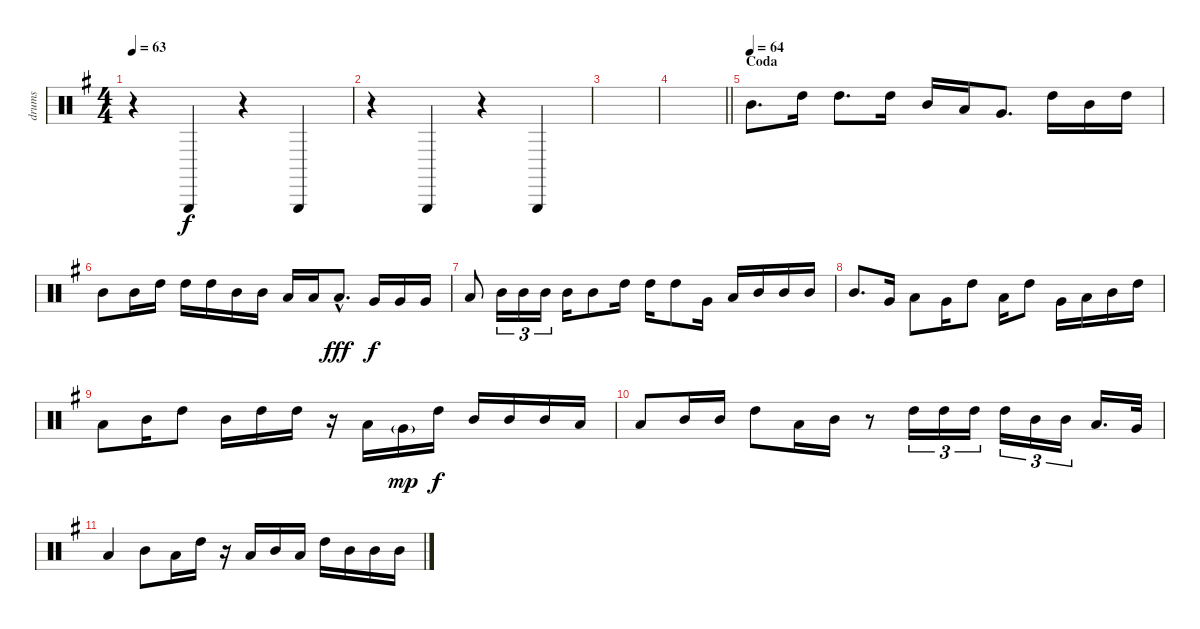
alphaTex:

\track ("drums" "drums") {instrument percussion}
\staff {score}
\articulation defaults
\ts (4 4)
\tempo 63
\clef neutral
\ks g
r.4{dy ff} "Triangle (hit)".4{dy f} r.4 "Triangle (hit)".4 |
r.4 "Triangle (hit)".4 r.4 "Triangle (hit)".4 |
|
\barLineRight lightlight
|
\section ("" "Coda")
\tempo (64)
"Mid Tom (hit)".8{d} "High Tom (hit)".16 "High Tom (hit)".8{d} "High Tom (hit)".16 "Mid Tom (hit)".16 "Low Tom (hit)".16 "Very Low Tom (hit)".8{d} "High Tom (hit)".16 "Mid Tom (hit)".16 "High Tom (hit)".16 |
"Mid Tom (hit)".8 "Mid Tom (hit)".16 "High Tom (hit)".16 "High Tom (hit)".16 "High Tom (hit)".16 "Mid Tom (hit)".16 "Mid Tom (hit)".16 "Low Tom (hit)".16 "Low Tom (hit)".16 "Low Tom (hit)"{hac}.8{d dy fff} "Very Low Tom (hit)".16{dy f} "Very Low Tom (hit)".16 "Very Low Tom (hit)".16 |
"Low Tom (hit)".8 "Mid Tom (hit)".16{tu (3 2)} "Mid Tom (hit)".16{tu (3 2)} "Mid Tom (hit)".16{tu (3 2)} "Mid Tom (hit)".16 "Mid Tom (hit)".8 "High Tom (hit)".16 "High Tom (hit)".16 "High Tom (hit)".8 "Very Low Tom (hit)".16 "Low Tom (hit)".16 "Mid Tom (hit)".16 "Mid Tom (hit)".16 "Mid Tom (hit)".16 |
"Mid Tom (hit)".8{d} "Very Low Tom (hit)".16 "Low Tom (hit)".8 "Very Low Tom (hit)".16 "High Tom (hit)".8 "Low Tom (hit)".16 "High Tom (hit)".8 "Very Low Tom (hit)".16 "Low Tom (hit)".16 "Mid Tom (hit)".16 "High Tom (hit)".16 |
"Low Tom (hit)".8 "Mid Tom (hit)".16 "High Tom (hit)".8 "Mid Tom (hit)".16 "High Tom (hit)".16 "High Tom (hit)".16 r.16 "Low Tom (hit)".16 "Very Low Tom (hit)"{g}.16{dy mp} "High Tom (hit)".16{dy f} "Mid Tom (hit)".16 "Mid Tom (hit)".16 "Mid Tom (hit)".16 "Low Tom (hit)".16 |
"Low Tom (hit)".8 "Mid Tom (hit)".16 "Mid Tom (hit)".16 "High Tom (hit)".8 "Low Tom (hit)".16 "Mid Tom (hit)".16 r.8 "High Tom (hit)".16{tu (3 2)} "High Tom (hit)".16{tu (3 2)} "High Tom (hit)".16{tu (3 2)} "High Tom (hit)".16{tu (3 2)} "Mid Tom (hit)".16{tu (3 2)} "Mid Tom (hit)".16{tu (3 2) beam splitsecondary} "Low Tom (hit)".16{d} "Very Low Tom (hit)".32 |
"Low Tom (hit)".4 "Mid Tom (hit)".8 "Low Tom (hit)".16 "High Tom (hit)".16 r.16 "Low Tom (hit)".16 "Mid Tom (hit)".16 "Low Tom (hit)".16 "High Tom (hit)".16 "Mid Tom (hit)".16 "Mid Tom (hit)".16 "Mid Tom (hit)".16
